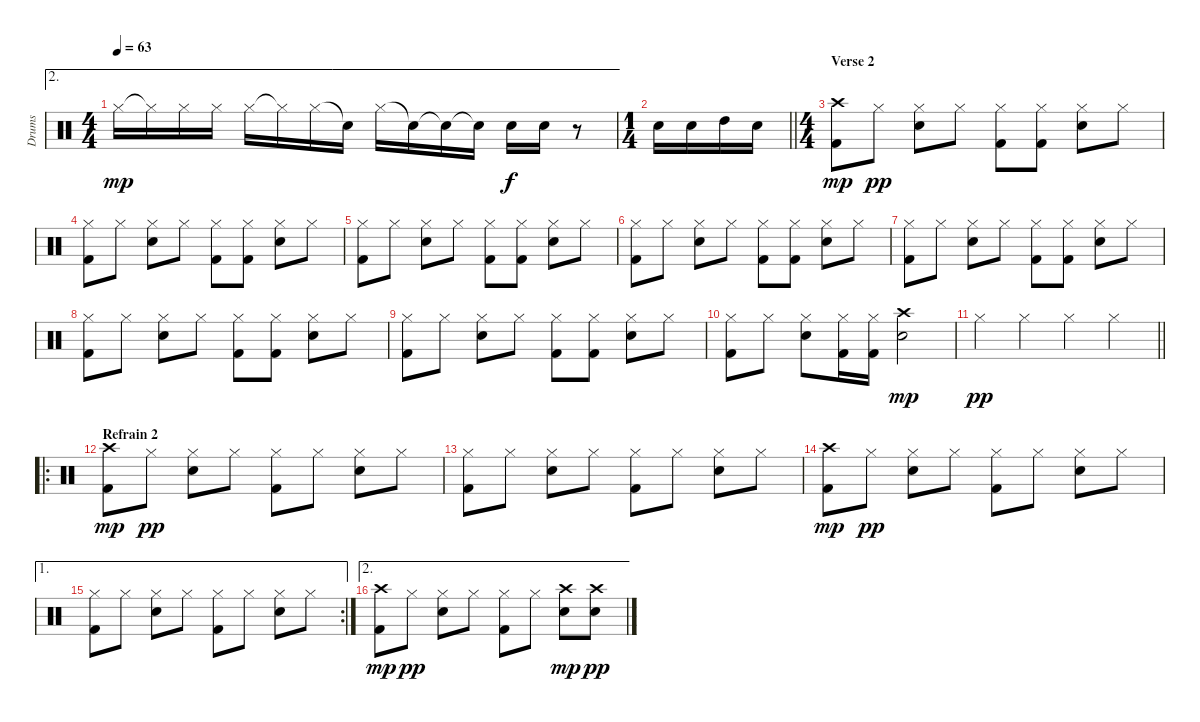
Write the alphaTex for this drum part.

\track ("Drums" "Drums") {instrument percussion}
\staff {score}
\articulation defaults
\ae 2
\ts (4 4)
\tempo 63
\clef neutral
\ks c "Hi-Hat (closed)".16{dy mp} "Hi-Hat (closed)"{t}.16 "Hi-Hat (closed)".16 "Hi-Hat (closed)".16 "Hi-Hat (closed)".16 "Hi-Hat (closed)"{t}.16 "Hi-Hat (closed)".16 "Snare (hit)"{t}.16 "Hi-Hat (closed)".16 "Snare (hit)"{t}.16 "Snare (hit)"{t}.16 "Snare (hit)"{t}.16 "Snare (hit) 2".16{dy f} "Snare (hit) 2".16
r.8 |
\ts (1 4)
\barLineRight lightlight "Electric Snare (hit)".16 "Electric Snare (hit)".16 "High Tom (hit)".16 "Snare (hit) 2".16
|
\ts (4 4)
\section ("" "Verse 2")
("Crash high (hit)" "Kick (hit) 2").8{dy mp} "Hi-Hat (closed)".8{dy pp} ("Hi-Hat (closed)" "Snare (hit) 2").8 "Hi-Hat (closed)".8 ("Hi-Hat (closed)" "Kick (hit) 2").8 ("Hi-Hat (closed)" "Kick (hit) 2").8 ("Hi-Hat (closed)" "Snare (hit) 2").8 "Hi-Hat (closed)".8 |
("Hi-Hat (closed)" "Kick (hit) 2").8 "Hi-Hat (closed)".8 ("Hi-Hat (closed)" "Snare (hit) 2").8 "Hi-Hat (closed)".8 ("Hi-Hat (closed)" "Kick (hit) 2").8 ("Hi-Hat (closed)" "Kick (hit) 2").8 ("Hi-Hat (closed)" "Snare (hit) 2").8 "Hi-Hat (closed)".8 |
("Hi-Hat (closed)" "Kick (hit) 2").8 "Hi-Hat (closed)".8 ("Hi-Hat (closed)" "Snare (hit) 2").8 "Hi-Hat (closed)".8 ("Hi-Hat (closed)" "Kick (hit) 2").8 ("Hi-Hat (closed)" "Kick (hit) 2").8 ("Hi-Hat (closed)" "Snare (hit) 2").8 "Hi-Hat (closed)".8 |
("Hi-Hat (closed)" "Kick (hit) 2").8 "Hi-Hat (closed)".8 ("Hi-Hat (closed)" "Snare (hit) 2").8 "Hi-Hat (closed)".8 ("Hi-Hat (closed)" "Kick (hit) 2").8 ("Hi-Hat (closed)" "Kick (hit) 2").8 ("Hi-Hat (closed)" "Snare (hit) 2").8 "Hi-Hat (closed)".8 |
("Hi-Hat (closed)" "Kick (hit) 2").8 "Hi-Hat (closed)".8 ("Hi-Hat (closed)" "Snare (hit) 2").8 "Hi-Hat (closed)".8 ("Hi-Hat (closed)" "Kick (hit) 2").8 ("Hi-Hat (closed)" "Kick (hit) 2").8 ("Hi-Hat (closed)" "Snare (hit) 2").8 "Hi-Hat (closed)".8 |
("Hi-Hat (closed)" "Kick (hit) 2").8 "Hi-Hat (closed)".8 ("Hi-Hat (closed)" "Snare (hit) 2").8 "Hi-Hat (closed)".8 ("Hi-Hat (closed)" "Kick (hit) 2").8 ("Hi-Hat (closed)" "Kick (hit) 2").8 ("Hi-Hat (closed)" "Snare (hit) 2").8 "Hi-Hat (closed)".8 |
("Hi-Hat (closed)" "Kick (hit) 2").8 "Hi-Hat (closed)".8 ("Hi-Hat (closed)" "Snare (hit) 2").8 "Hi-Hat (closed)".8 ("Hi-Hat (closed)" "Kick (hit) 2").8 ("Hi-Hat (closed)" "Kick (hit) 2").8 ("Hi-Hat (closed)" "Snare (hit) 2").8 "Hi-Hat (closed)".8 |
("Hi-Hat (closed)" "Kick (hit) 2").8 "Hi-Hat (closed)".8 ("Hi-Hat (closed)" "Snare (hit) 2").8 ("Hi-Hat (closed)" "Kick (hit) 2").16 ("Hi-Hat (closed)" "Kick (hit) 2").16 ("Crash high (hit)" "Electric Snare (hit)").2{dy mp} |
\barLineRight lightlight "Hi-Hat (closed)".4{dy pp} "Hi-Hat (closed)".4 "Hi-Hat (closed)".4 "Hi-Hat (closed)".4
|
\ro
\section ("" "Refrain 2")
("Crash high (hit)" "Kick (hit) 2").8{dy mp} "Hi-Hat (closed)".8{dy pp} ("Hi-Hat (closed)" "Snare (hit) 2").8 "Hi-Hat (closed)".8 ("Hi-Hat (closed)" "Kick (hit) 2").8 "Hi-Hat (closed)".8 ("Hi-Hat (closed)" "Snare (hit) 2").8 "Hi-Hat (closed)".8 |
("Hi-Hat (closed)" "Kick (hit) 2").8 "Hi-Hat (closed)".8 ("Hi-Hat (closed)" "Snare (hit) 2").8 "Hi-Hat (closed)".8 ("Hi-Hat (closed)" "Kick (hit) 2").8 "Hi-Hat (closed)".8 ("Hi-Hat (closed)" "Snare (hit) 2").8 "Hi-Hat (closed)".8 |
("Crash high (hit)" "Kick (hit) 2").8{dy mp} "Hi-Hat (closed)".8{dy pp} ("Hi-Hat (closed)" "Snare (hit) 2").8 "Hi-Hat (closed)".8 ("Hi-Hat (closed)" "Kick (hit) 2").8 "Hi-Hat (closed)".8 ("Hi-Hat (closed)" "Snare (hit) 2").8 "Hi-Hat (closed)".8 |
\ae 1
\rc 2
("Hi-Hat (closed)" "Kick (hit) 2").8 "Hi-Hat (closed)".8 ("Hi-Hat (closed)" "Snare (hit) 2").8 "Hi-Hat (closed)".8 ("Hi-Hat (closed)" "Kick (hit) 2").8 "Hi-Hat (closed)".8 ("Hi-Hat (closed)" "Snare (hit) 2").8 "Hi-Hat (closed)".8 |
\ae 2
("Crash high (hit)" "Kick (hit) 2").8{dy mp} "Hi-Hat (closed)".8{dy pp} ("Hi-Hat (closed)" "Snare (hit) 2").8 "Hi-Hat (closed)".8 ("Hi-Hat (closed)" "Kick (hit) 2").8 "Hi-Hat (closed)".8 ("Crash high (hit)" "Snare (hit) 2").8{dy mp} ("Crash high (hit)" "Snare (hit) 2").8{dy pp}
